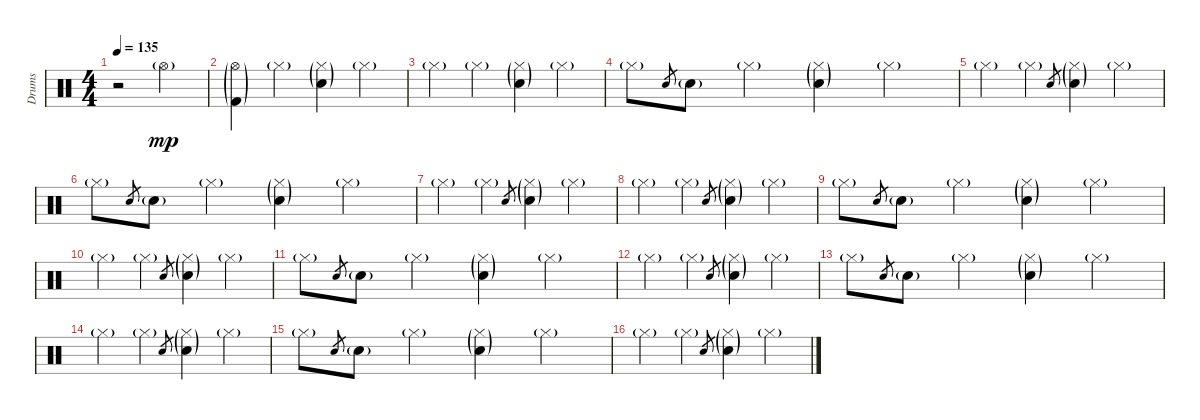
\track ("Drums" "Drums") {instrument percussion}
\staff {score}
\articulation defaults
\ts (4 4)
\tempo 135
\clef neutral
\ks c
r.2{dy mp} "Hi-Hat (open)"{g}.2 |
("Kick (hit) 2"{g} "Hi-Hat (open)"{g}).4{volume 16} "Hi-Hat (closed)"{g}.4 ("Snare (hit) 2"{g} "Hi-Hat (closed)"{g}).4 "Hi-Hat (closed)"{g}.4 |
"Hi-Hat (closed)"{g}.4 "Hi-Hat (closed)"{g}.4 ("Snare (hit) 2"{g} "Hi-Hat (closed)"{g}).4 "Hi-Hat (closed)"{g}.4 |
"Hi-Hat (closed)"{g}.8 "Snare (hit) 2".8{gr} "Snare (hit) 2"{g}.8 "Hi-Hat (closed)"{g}.4 ("Snare (hit) 2"{g} "Hi-Hat (closed)"{g}).4 "Hi-Hat (closed)"{g}.4 |
"Hi-Hat (closed)"{g}.4 "Hi-Hat (closed)"{g}.4 "Snare (hit) 2".8{gr} ("Snare (hit) 2"{g} "Hi-Hat (closed)"{g}).4 "Hi-Hat (closed)"{g}.4 |
"Hi-Hat (closed)"{g}.8 "Snare (hit) 2".8{gr} "Snare (hit) 2"{g}.8 "Hi-Hat (closed)"{g}.4 ("Snare (hit) 2"{g} "Hi-Hat (closed)"{g}).4 "Hi-Hat (closed)"{g}.4 |
"Hi-Hat (closed)"{g}.4 "Hi-Hat (closed)"{g}.4 "Snare (hit) 2".8{gr} ("Snare (hit) 2"{g} "Hi-Hat (closed)"{g}).4 "Hi-Hat (closed)"{g}.4 |
"Hi-Hat (closed)"{g}.4 "Hi-Hat (closed)"{g}.4 "Snare (hit) 2".8{gr} ("Snare (hit) 2"{g} "Hi-Hat (closed)"{g}).4 "Hi-Hat (closed)"{g}.4 |
"Hi-Hat (closed)"{g}.8 "Snare (hit) 2".8{gr} "Snare (hit) 2"{g}.8 "Hi-Hat (closed)"{g}.4 ("Snare (hit) 2"{g} "Hi-Hat (closed)"{g}).4 "Hi-Hat (closed)"{g}.4 |
"Hi-Hat (closed)"{g}.4 "Hi-Hat (closed)"{g}.4 "Snare (hit) 2".8{gr} ("Snare (hit) 2"{g} "Hi-Hat (closed)"{g}).4 "Hi-Hat (closed)"{g}.4 |
"Hi-Hat (closed)"{g}.8 "Snare (hit) 2".8{gr} "Snare (hit) 2"{g}.8 "Hi-Hat (closed)"{g}.4 ("Snare (hit) 2"{g} "Hi-Hat (closed)"{g}).4 "Hi-Hat (closed)"{g}.4 |
"Hi-Hat (closed)"{g}.4 "Hi-Hat (closed)"{g}.4 "Snare (hit) 2".8{gr} ("Snare (hit) 2"{g} "Hi-Hat (closed)"{g}).4 "Hi-Hat (closed)"{g}.4 |
"Hi-Hat (closed)"{g}.8 "Snare (hit) 2".8{gr} "Snare (hit) 2"{g}.8 "Hi-Hat (closed)"{g}.4 ("Snare (hit) 2"{g} "Hi-Hat (closed)"{g}).4 "Hi-Hat (closed)"{g}.4 |
"Hi-Hat (closed)"{g}.4 "Hi-Hat (closed)"{g}.4 "Snare (hit) 2".8{gr} ("Snare (hit) 2"{g} "Hi-Hat (closed)"{g}).4 "Hi-Hat (closed)"{g}.4 |
"Hi-Hat (closed)"{g}.8 "Snare (hit) 2".8{gr} "Snare (hit) 2"{g}.8 "Hi-Hat (closed)"{g}.4 ("Snare (hit) 2"{g} "Hi-Hat (closed)"{g}).4 "Hi-Hat (closed)"{g}.4 |
"Hi-Hat (closed)"{g}.4 "Hi-Hat (closed)"{g}.4 "Snare (hit) 2".8{gr} ("Snare (hit) 2"{g} "Hi-Hat (closed)"{g}).4 "Hi-Hat (closed)"{g}.4
